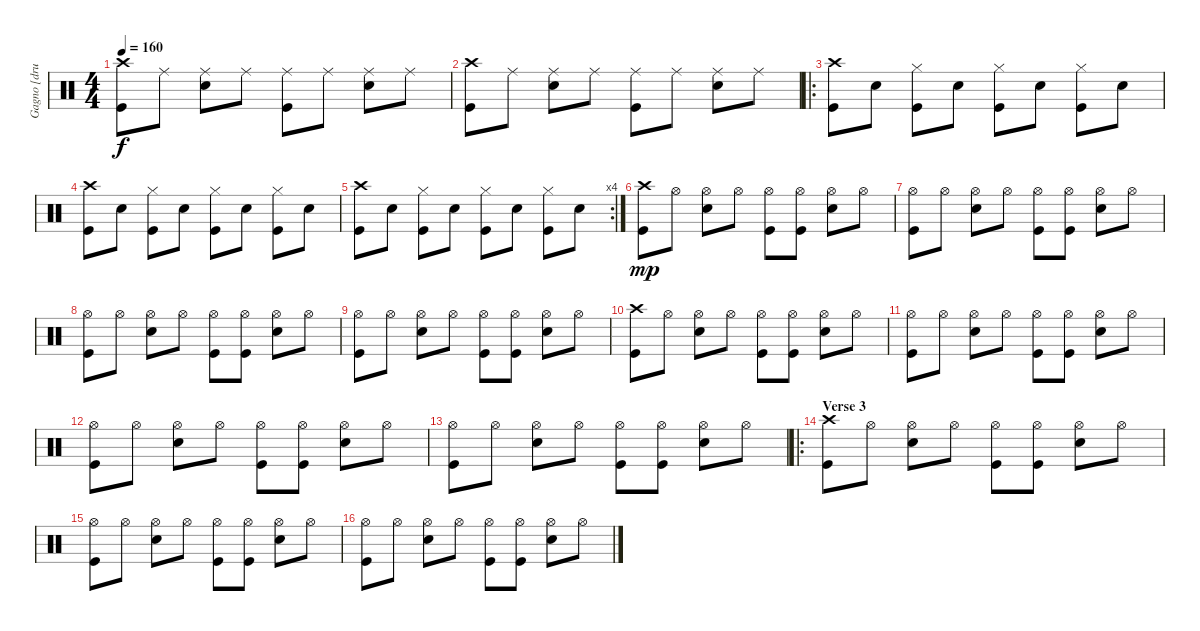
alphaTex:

\track ("Gagno [drums]" "Gagno [dru") {instrument percussion}
\staff {score}
\articulation defaults
\ts (4 4)
\tempo 160
\clef neutral
\ks c
("Crash high (hit)" "Kick (hit)").8{dy f} "Ride (middle)".8 ("Ride (middle)" "Snare (hit) 2").8 "Ride (middle)".8 ("Ride (middle)" "Kick (hit)").8 "Ride (middle)".8 ("Ride (middle)" "Snare (hit) 2").8 "Ride (middle)".8 |
("Crash high (hit)" "Kick (hit)").8 "Ride (middle)".8 ("Ride (middle)" "Snare (hit) 2").8 "Ride (middle)".8 ("Ride (middle)" "Kick (hit)").8 "Ride (middle)".8 ("Ride (middle)" "Snare (hit) 2").8 "Ride (middle)".8 |
\ro
("Crash high (hit)" "Kick (hit)").8 "Snare (hit) 2".8 ("Hi-Hat (closed)" "Kick (hit)").8 "Snare (hit) 2".8 ("Hi-Hat (closed)" "Kick (hit)").8 "Snare (hit) 2".8 ("Hi-Hat (closed)" "Kick (hit)").8 "Snare (hit) 2".8 |
("Crash high (hit)" "Kick (hit)").8 "Snare (hit) 2".8 ("Hi-Hat (closed)" "Kick (hit)").8 "Snare (hit) 2".8 ("Hi-Hat (closed)" "Kick (hit)").8 "Snare (hit) 2".8 ("Hi-Hat (closed)" "Kick (hit)").8 "Snare (hit) 2".8 |
\rc 4
("Crash high (hit)" "Kick (hit)").8 "Snare (hit) 2".8 ("Hi-Hat (closed)" "Kick (hit)").8 "Snare (hit) 2".8 ("Hi-Hat (closed)" "Kick (hit)").8 "Snare (hit) 2".8 ("Hi-Hat (closed)" "Kick (hit)").8 "Snare (hit) 2".8 |
("Crash high (hit)" "Kick (hit)").8{dy mp} "Hi-Hat (open)".8 ("Hi-Hat (open)" "Snare (hit) 2").8 "Hi-Hat (open)".8 ("Hi-Hat (open)" "Kick (hit)").8 ("Hi-Hat (open)" "Kick (hit)").8 ("Hi-Hat (open)" "Snare (hit) 2").8 "Hi-Hat (open)".8 |
("Hi-Hat (open)" "Kick (hit)").8 "Hi-Hat (open)".8 ("Hi-Hat (open)" "Snare (hit) 2").8 "Hi-Hat (open)".8 ("Hi-Hat (open)" "Kick (hit)").8 ("Hi-Hat (open)" "Kick (hit)").8 ("Hi-Hat (open)" "Snare (hit) 2").8 "Hi-Hat (open)".8 |
("Hi-Hat (open)" "Kick (hit)").8 "Hi-Hat (open)".8 ("Hi-Hat (open)" "Snare (hit) 2").8 "Hi-Hat (open)".8 ("Hi-Hat (open)" "Kick (hit)").8 ("Hi-Hat (open)" "Kick (hit)").8 ("Hi-Hat (open)" "Snare (hit) 2").8 "Hi-Hat (open)".8 |
("Hi-Hat (open)" "Kick (hit)").8 "Hi-Hat (open)".8 ("Hi-Hat (open)" "Snare (hit) 2").8 "Hi-Hat (open)".8 ("Hi-Hat (open)" "Kick (hit)").8 ("Hi-Hat (open)" "Kick (hit)").8 ("Hi-Hat (open)" "Snare (hit) 2").8 "Hi-Hat (open)".8 |
("Crash high (hit)" "Kick (hit)").8 "Hi-Hat (open)".8 ("Hi-Hat (open)" "Snare (hit) 2").8 "Hi-Hat (open)".8 ("Hi-Hat (open)" "Kick (hit)").8 ("Hi-Hat (open)" "Kick (hit)").8 ("Hi-Hat (open)" "Snare (hit) 2").8 "Hi-Hat (open)".8 |
("Hi-Hat (open)" "Kick (hit)").8 "Hi-Hat (open)".8 ("Hi-Hat (open)" "Snare (hit) 2").8 "Hi-Hat (open)".8 ("Hi-Hat (open)" "Kick (hit)").8 ("Hi-Hat (open)" "Kick (hit)").8 ("Hi-Hat (open)" "Snare (hit) 2").8 "Hi-Hat (open)".8 |
("Hi-Hat (open)" "Kick (hit)").8 "Hi-Hat (open)".8 ("Hi-Hat (open)" "Snare (hit) 2").8 "Hi-Hat (open)".8 ("Hi-Hat (open)" "Kick (hit)").8 ("Hi-Hat (open)" "Kick (hit)").8 ("Hi-Hat (open)" "Snare (hit) 2").8 "Hi-Hat (open)".8 |
("Hi-Hat (open)" "Kick (hit)").8 "Hi-Hat (open)".8 ("Hi-Hat (open)" "Snare (hit) 2").8 "Hi-Hat (open)".8 ("Hi-Hat (open)" "Kick (hit)").8 ("Hi-Hat (open)" "Kick (hit)").8 ("Hi-Hat (open)" "Snare (hit) 2").8 "Hi-Hat (open)".8 |
\ro
\section ("" "Verse 3")
("Crash high (hit)" "Kick (hit)").8 "Hi-Hat (open)".8 ("Hi-Hat (open)" "Snare (hit) 2").8 "Hi-Hat (open)".8 ("Hi-Hat (open)" "Kick (hit)").8 ("Hi-Hat (open)" "Kick (hit)").8 ("Hi-Hat (open)" "Snare (hit) 2").8 "Hi-Hat (open)".8 |
("Hi-Hat (open)" "Kick (hit)").8 "Hi-Hat (open)".8 ("Hi-Hat (open)" "Snare (hit) 2").8 "Hi-Hat (open)".8 ("Hi-Hat (open)" "Kick (hit)").8 ("Hi-Hat (open)" "Kick (hit)").8 ("Hi-Hat (open)" "Snare (hit) 2").8 "Hi-Hat (open)".8 |
("Hi-Hat (open)" "Kick (hit)").8 "Hi-Hat (open)".8 ("Hi-Hat (open)" "Snare (hit) 2").8 "Hi-Hat (open)".8 ("Hi-Hat (open)" "Kick (hit)").8 ("Hi-Hat (open)" "Kick (hit)").8 ("Hi-Hat (open)" "Snare (hit) 2").8 "Hi-Hat (open)".8
